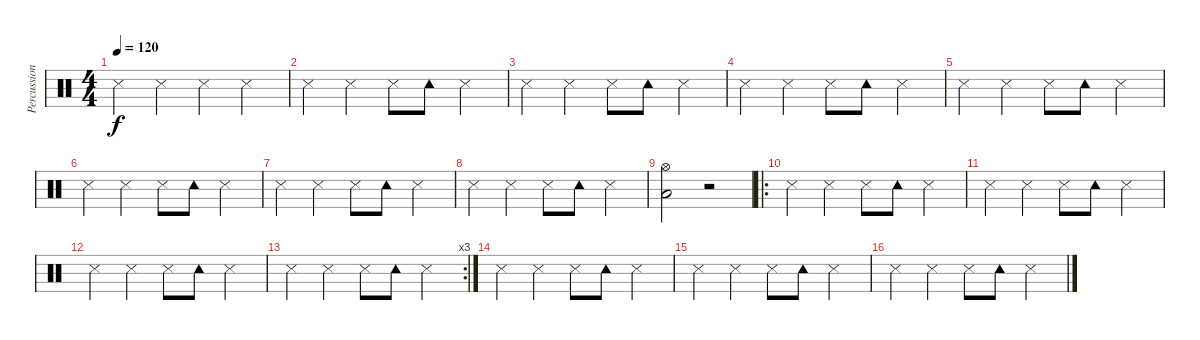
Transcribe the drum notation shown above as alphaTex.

\track ("Percussion" "Percussion") {instrument percussion}
\staff {score}
\articulation defaults
\ts (4 4)
\tempo 120
\clef neutral
\ks c "Snare (side stick) 3".4{dy f} "Snare (side stick) 3".4 "Snare (side stick) 3".4 "Snare (side stick) 3".4
|
"Snare (side stick) 3".4 "Snare (side stick) 3".4 "Snare (side stick) 3".8 "Tambourine (hit)".8 "Snare (side stick) 3".4 |
"Snare (side stick) 3".4 "Snare (side stick) 3".4 "Snare (side stick) 3".8 "Tambourine (hit)".8 "Snare (side stick) 3".4 |
"Snare (side stick) 3".4 "Snare (side stick) 3".4 "Snare (side stick) 3".8 "Tambourine (hit)".8 "Snare (side stick) 3".4 |
"Snare (side stick) 3".4 "Snare (side stick) 3".4 "Snare (side stick) 3".8 "Tambourine (hit)".8 "Snare (side stick) 3".4 |
"Snare (side stick) 3".4 "Snare (side stick) 3".4 "Snare (side stick) 3".8 "Tambourine (hit)".8 "Snare (side stick) 3".4 |
"Snare (side stick) 3".4 "Snare (side stick) 3".4 "Snare (side stick) 3".8 "Tambourine (hit)".8 "Snare (side stick) 3".4 |
"Snare (side stick) 3".4 "Snare (side stick) 3".4 "Snare (side stick) 3".8 "Tambourine (hit)".8 "Snare (side stick) 3".4 |
("Low Tom (hit)" "Hi-Hat (open)").2 r.2 |
\ro "Snare (side stick) 3".4 "Snare (side stick) 3".4 "Snare (side stick) 3".8 "Tambourine (hit)".8 "Snare (side stick) 3".4
|
"Snare (side stick) 3".4 "Snare (side stick) 3".4 "Snare (side stick) 3".8 "Tambourine (hit)".8 "Snare (side stick) 3".4 |
"Snare (side stick) 3".4 "Snare (side stick) 3".4 "Snare (side stick) 3".8 "Tambourine (hit)".8 "Snare (side stick) 3".4 |
\rc 3 "Snare (side stick) 3".4 "Snare (side stick) 3".4 "Snare (side stick) 3".8 "Tambourine (hit)".8 "Snare (side stick) 3".4
|
"Snare (side stick) 3".4 "Snare (side stick) 3".4 "Snare (side stick) 3".8 "Tambourine (hit)".8 "Snare (side stick) 3".4 |
"Snare (side stick) 3".4 "Snare (side stick) 3".4 "Snare (side stick) 3".8 "Tambourine (hit)".8 "Snare (side stick) 3".4 |
"Snare (side stick) 3".4 "Snare (side stick) 3".4 "Snare (side stick) 3".8 "Tambourine (hit)".8 "Snare (side stick) 3".4
